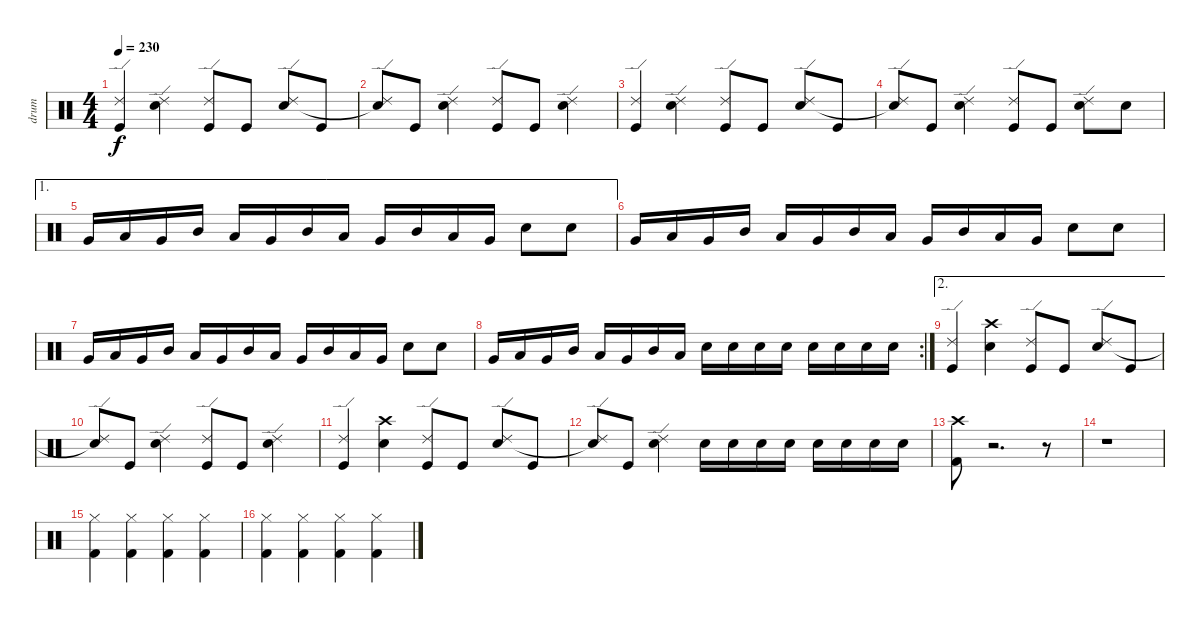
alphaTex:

\track ("drum" "drum") {instrument percussion}
\staff {score}
\articulation defaults
\ts (4 4)
\tempo 230
\clef neutral
\ks c
("Ride (edge) 2" "Kick (hit)").4{dy f} ("Ride (edge) 2" "Snare (hit) 2").4 ("Ride (edge) 2" "Kick (hit)").8 "Kick (hit)".8 ("Ride (edge) 2" "Snare (hit) 2").8 "Kick (hit)".8 |
("Ride (edge) 2" "Snare (hit) 2"{t}).8 "Kick (hit)".8 ("Ride (edge) 2" "Snare (hit) 2").4 ("Ride (edge) 2" "Kick (hit)").8 "Kick (hit)".8 ("Ride (edge) 2" "Snare (hit) 2").4 |
("Ride (edge) 2" "Kick (hit)").4 ("Ride (edge) 2" "Snare (hit) 2").4 ("Ride (edge) 2" "Kick (hit)").8 "Kick (hit)".8 ("Ride (edge) 2" "Snare (hit) 2").8 "Kick (hit)".8 |
("Ride (edge) 2" "Snare (hit) 2"{t}).8 "Kick (hit)".8 ("Ride (edge) 2" "Snare (hit) 2").4 ("Ride (edge) 2" "Kick (hit)").8 "Kick (hit)".8 ("Ride (edge) 2" "Snare (hit) 2").8 "Snare (hit) 2".8 |
\ae 1 "Very Low Tom (hit)".16 "Low Tom (hit)".16 "Very Low Tom (hit)".16 "Mid Tom (hit)".16 "Low Tom (hit)".16 "Very Low Tom (hit)".16 "Mid Tom (hit)".16 "Low Tom (hit)".16 "Very Low Tom (hit)".16 "Mid Tom (hit)".16 "Low Tom (hit)".16 "Very Low Tom (hit)".16 "Snare (hit) 2".8 "Snare (hit) 2".8
|
"Very Low Tom (hit)".16 "Low Tom (hit)".16 "Very Low Tom (hit)".16 "Mid Tom (hit)".16 "Low Tom (hit)".16 "Very Low Tom (hit)".16 "Mid Tom (hit)".16 "Low Tom (hit)".16 "Very Low Tom (hit)".16 "Mid Tom (hit)".16 "Low Tom (hit)".16 "Very Low Tom (hit)".16 "Snare (hit) 2".8 "Snare (hit) 2".8 |
"Very Low Tom (hit)".16 "Low Tom (hit)".16 "Very Low Tom (hit)".16 "Mid Tom (hit)".16 "Low Tom (hit)".16 "Very Low Tom (hit)".16 "Mid Tom (hit)".16 "Low Tom (hit)".16 "Very Low Tom (hit)".16 "Mid Tom (hit)".16 "Low Tom (hit)".16 "Very Low Tom (hit)".16 "Snare (hit) 2".8 "Snare (hit) 2".8 |
\rc 2 "Very Low Tom (hit)".16 "Low Tom (hit)".16 "Very Low Tom (hit)".16 "Mid Tom (hit)".16 "Low Tom (hit)".16 "Very Low Tom (hit)".16 "Mid Tom (hit)".16 "Low Tom (hit)".16 "Snare (hit) 2".16 "Snare (hit) 2".16 "Snare (hit) 2".16 "Snare (hit) 2".16 "Snare (hit) 2".16 "Snare (hit) 2".16 "Snare (hit) 2".16 "Snare (hit) 2".16
|
\ae 2
("Ride (edge) 2" "Kick (hit)").4 ("Crash high (hit)" "Snare (hit) 2").4 ("Ride (edge) 2" "Kick (hit)").8 "Kick (hit)".8 ("Ride (edge) 2" "Snare (hit) 2").8 "Kick (hit)".8 |
("Ride (edge) 2" "Snare (hit) 2"{t}).8 "Kick (hit)".8 ("Ride (edge) 2" "Snare (hit) 2").4 ("Ride (edge) 2" "Kick (hit)").8 "Kick (hit)".8 ("Ride (edge) 2" "Snare (hit) 2").4 |
("Ride (edge) 2" "Kick (hit)").4 ("Crash high (hit)" "Snare (hit) 2").4 ("Ride (edge) 2" "Kick (hit)").8 "Kick (hit)".8 ("Ride (edge) 2" "Snare (hit) 2").8 "Kick (hit)".8 |
("Ride (edge) 2" "Snare (hit) 2"{t}).8 "Kick (hit)".8 ("Ride (edge) 2" "Snare (hit) 2").4 "Snare (hit) 2".16 "Snare (hit) 2".16 "Snare (hit) 2".16 "Snare (hit) 2".16 "Snare (hit) 2".16 "Snare (hit) 2".16 "Snare (hit) 2".16 "Snare (hit) 2".16 |
("Crash high (hit)" "Kick (hit) 2").8 r.2{d} r.8 |
r.1 |
("Hi-Hat (closed)" "Kick (hit) 2").4 ("Hi-Hat (closed)" "Kick (hit) 2").4 ("Hi-Hat (closed)" "Kick (hit) 2").4 ("Hi-Hat (closed)" "Kick (hit) 2").4 |
("Hi-Hat (closed)" "Kick (hit) 2").4 ("Hi-Hat (closed)" "Kick (hit) 2").4 ("Hi-Hat (closed)" "Kick (hit) 2").4 ("Hi-Hat (closed)" "Kick (hit) 2").4
